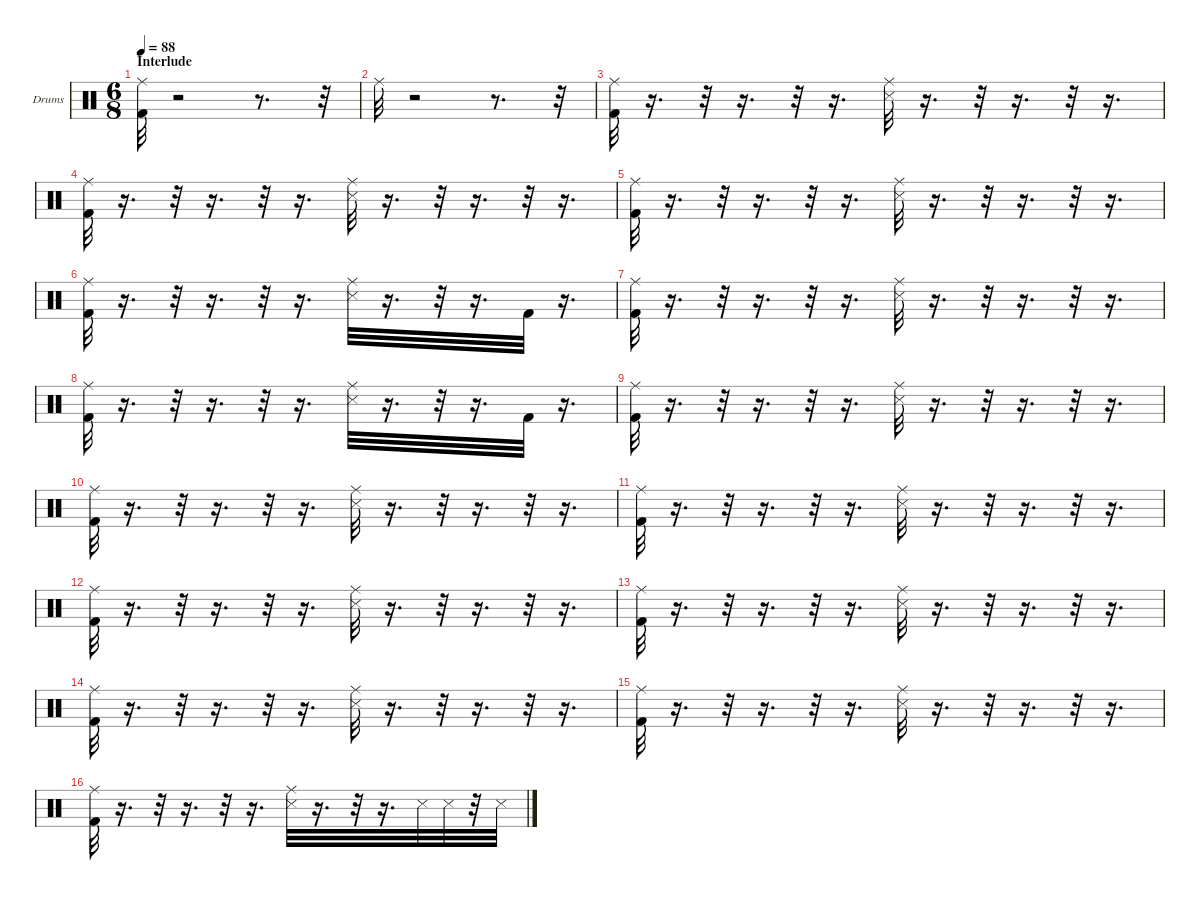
\hideDynamics
\bracketExtendMode nobrackets
\firstSystemTrackNameOrientation horizontal
\otherSystemsTrackNameOrientation horizontal
\track ("Drumkit" "Drums") {instrument percussion}
\staff {score}
\articulation defaults
\ts (6 8)
\section ("" "Interlude")
\tempo 88
\clef neutral
\ks c
("Kick (hit) 2" "Ride (middle)").32{dy fff} r.2 r.8{d} r.32 |
"Ride (middle)".32{dy ff} r.2 r.8{d} r.32 |
("Kick (hit) 2" "Ride (middle)").32{dy fff} r.16{d} r.32 r.16{d} r.32 r.16{d} ("Snare (side stick) 3" "Ride (middle)").32{dy ff} r.16{d} r.32 r.16{d} r.32 r.16{d} |
("Kick (hit) 2" "Ride (middle)").32{dy fff} r.16{d} r.32 r.16{d} r.32 r.16{d} ("Snare (side stick) 3" "Ride (middle)").32{dy ff} r.16{d} r.32 r.16{d} r.32 r.16{d} |
("Kick (hit) 2" "Ride (middle)").32{dy fff} r.16{d} r.32 r.16{d} r.32 r.16{d} ("Snare (side stick) 3" "Ride (middle)").32{dy ff} r.16{d} r.32 r.16{d} r.32 r.16{d} |
("Kick (hit) 2" "Ride (middle)").32{dy fff} r.16{d} r.32 r.16{d} r.32 r.16{d} ("Snare (side stick) 3" "Ride (middle)").32{dy ff} r.16{d} r.32 r.16{d} "Kick (hit) 2".32{dy f} r.16{d} |
("Kick (hit) 2" "Ride (middle)").32{dy fff} r.16{d} r.32 r.16{d} r.32 r.16{d} ("Snare (side stick) 3" "Ride (middle)").32{dy ff} r.16{d} r.32 r.16{d} r.32 r.16{d} |
("Kick (hit) 2" "Ride (middle)").32{dy fff} r.16{d} r.32 r.16{d} r.32 r.16{d} ("Snare (side stick) 3" "Ride (middle)").32{dy ff} r.16{d} r.32 r.16{d} "Kick (hit) 2".32{dy f} r.16{d} |
("Kick (hit) 2" "Ride (middle)").32{dy fff} r.16{d} r.32 r.16{d} r.32 r.16{d} ("Snare (side stick) 3" "Ride (middle)").32{dy ff} r.16{d} r.32 r.16{d} r.32 r.16{d} |
("Kick (hit) 2" "Ride (middle)").32{dy fff} r.16{d} r.32 r.16{d} r.32 r.16{d} ("Snare (side stick) 3" "Ride (middle)").32{dy ff} r.16{d} r.32 r.16{d} r.32 r.16{d} |
("Kick (hit) 2" "Ride (middle)").32{dy fff} r.16{d} r.32 r.16{d} r.32 r.16{d} ("Snare (side stick) 3" "Ride (middle)").32{dy ff} r.16{d} r.32 r.16{d} r.32 r.16{d} |
("Kick (hit) 2" "Ride (middle)").32{dy fff} r.16{d} r.32 r.16{d} r.32 r.16{d} ("Snare (side stick) 3" "Ride (middle)").32{dy ff} r.16{d} r.32 r.16{d} r.32 r.16{d} |
("Kick (hit) 2" "Ride (middle)").32{dy fff} r.16{d} r.32 r.16{d} r.32 r.16{d} ("Snare (side stick) 3" "Ride (middle)").32{dy ff} r.16{d} r.32 r.16{d} r.32 r.16{d} |
("Kick (hit) 2" "Ride (middle)").32{dy fff} r.16{d} r.32 r.16{d} r.32 r.16{d} ("Snare (side stick) 3" "Ride (middle)").32{dy ff} r.16{d} r.32 r.16{d} r.32 r.16{d} |
("Kick (hit) 2" "Ride (middle)").32{dy fff} r.16{d} r.32 r.16{d} r.32 r.16{d} ("Snare (side stick) 3" "Ride (middle)").32{dy ff} r.16{d} r.32 r.16{d} r.32 r.16{d} |
("Kick (hit) 2" "Ride (middle)").32{dy fff} r.16{d} r.32 r.16{d} r.32 r.16{d} ("Snare (side stick) 3" "Ride (middle)").32{dy ff} r.16{d} r.32 r.16{d} "Snare (side stick) 3".32{dy f} "Snare (side stick) 3".32{dy mf} r.32 "Snare (side stick) 3".32{dy f}
